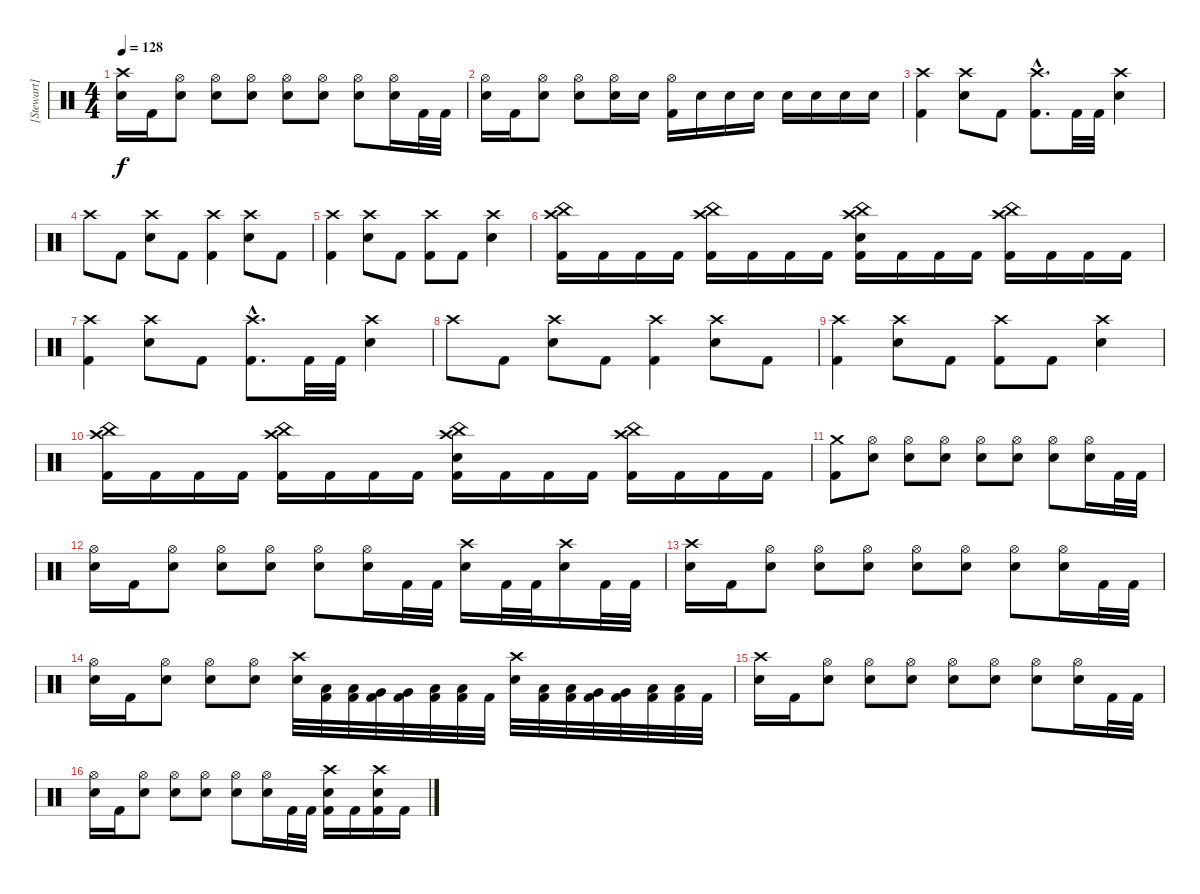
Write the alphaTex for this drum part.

\track ("[Stewart]" "[Stewart]") {instrument percussion}
\staff {score}
\articulation defaults
\ts (4 4)
\tempo 128
\clef neutral
\ks c
("Crash high (hit)" "Electric Snare (hit)").16{dy f} "Kick (hit) 2".16 ("Hi-Hat (open)" "Electric Snare (hit)").8 ("Hi-Hat (open)" "Electric Snare (hit)").8 ("Hi-Hat (open)" "Electric Snare (hit)").8 ("Hi-Hat (open)" "Electric Snare (hit)").8 ("Hi-Hat (open)" "Electric Snare (hit)").8 ("Hi-Hat (open)" "Electric Snare (hit)").8 ("Hi-Hat (open)" "Electric Snare (hit)").16 "Kick (hit) 2".32 "Kick (hit) 2".32 |
("Hi-Hat (open)" "Electric Snare (hit)").16 "Kick (hit) 2".16 ("Hi-Hat (open)" "Electric Snare (hit)").8 ("Hi-Hat (open)" "Electric Snare (hit)").8 ("Hi-Hat (open)" "Electric Snare (hit)").16 "Electric Snare (hit)".16 ("Hi-Hat (open)" "Kick (hit) 2").16 "Electric Snare (hit)".16 "Electric Snare (hit)".16 "Electric Snare (hit)".16 "Electric Snare (hit)".16 "Electric Snare (hit)".16 "Electric Snare (hit)".16 "Electric Snare (hit)".16 |
("Crash high (hit)" "Kick (hit) 2").4 ("Crash high (hit)" "Electric Snare (hit)").8 "Kick (hit) 2".8 ("Crash high (hit)"{hac} "Kick (hit) 2"{hac}).8{d} "Kick (hit) 2".32 "Kick (hit) 2".32 ("Crash high (hit)" "Electric Snare (hit)").4 |
"Crash high (hit)".8 "Kick (hit) 2".8 ("Crash high (hit)" "Electric Snare (hit)").8 "Kick (hit) 2".8 ("Crash high (hit)" "Kick (hit) 2").4 ("Crash high (hit)" "Electric Snare (hit)").8 "Kick (hit) 2".8 |
("Crash high (hit)" "Kick (hit) 2").4 ("Crash high (hit)" "Electric Snare (hit)").8 "Kick (hit) 2".8 ("Crash high (hit)" "Kick (hit) 2").8 "Kick (hit) 2".8 ("Crash high (hit)" "Electric Snare (hit)").4 |
("China (hit)" "Crash high (hit)" "Kick (hit) 2").16 "Kick (hit) 2".16 "Kick (hit) 2".16 "Kick (hit) 2".16 ("China (hit)" "Crash high (hit)" "Kick (hit) 2").16 "Kick (hit) 2".16 "Kick (hit) 2".16 "Kick (hit) 2".16 ("China (hit)" "Crash high (hit)" "Electric Snare (hit)" "Kick (hit) 2").16 "Kick (hit) 2".16 "Kick (hit) 2".16 "Kick (hit) 2".16 ("China (hit)" "Crash high (hit)" "Kick (hit) 2").16 "Kick (hit) 2".16 "Kick (hit) 2".16 "Kick (hit) 2".16 |
("Crash high (hit)" "Kick (hit) 2").4 ("Crash high (hit)" "Electric Snare (hit)").8 "Kick (hit) 2".8 ("Crash high (hit)"{hac} "Kick (hit) 2"{hac}).8{d} "Kick (hit) 2".32 "Kick (hit) 2".32 ("Crash high (hit)" "Electric Snare (hit)").4 |
"Crash high (hit)".8 "Kick (hit) 2".8 ("Crash high (hit)" "Electric Snare (hit)").8 "Kick (hit) 2".8 ("Crash high (hit)" "Kick (hit) 2").4 ("Crash high (hit)" "Electric Snare (hit)").8 "Kick (hit) 2".8 |
("Crash high (hit)" "Kick (hit) 2").4 ("Crash high (hit)" "Electric Snare (hit)").8 "Kick (hit) 2".8 ("Crash high (hit)" "Kick (hit) 2").8 "Kick (hit) 2".8 ("Crash high (hit)" "Electric Snare (hit)").4 |
("China (hit)" "Crash high (hit)" "Kick (hit) 2").16 "Kick (hit) 2".16 "Kick (hit) 2".16 "Kick (hit) 2".16 ("China (hit)" "Crash high (hit)" "Kick (hit) 2").16 "Kick (hit) 2".16 "Kick (hit) 2".16 "Kick (hit) 2".16 ("China (hit)" "Crash high (hit)" "Electric Snare (hit)" "Kick (hit) 2").16 "Kick (hit) 2".16 "Kick (hit) 2".16 "Kick (hit) 2".16 ("China (hit)" "Crash high (hit)" "Kick (hit) 2").16 "Kick (hit) 2".16 "Kick (hit) 2".16 "Kick (hit) 2".16 |
("Crash medium (hit)" "Kick (hit) 2").8 ("Hi-Hat (open)" "Electric Snare (hit)").8 ("Hi-Hat (open)" "Electric Snare (hit)").8 ("Hi-Hat (open)" "Electric Snare (hit)").8 ("Hi-Hat (open)" "Electric Snare (hit)").8 ("Hi-Hat (open)" "Electric Snare (hit)").8 ("Hi-Hat (open)" "Electric Snare (hit)").8 ("Hi-Hat (open)" "Electric Snare (hit)").16 "Kick (hit) 2".32 "Kick (hit) 2".32 |
("Hi-Hat (open)" "Electric Snare (hit)").16 "Kick (hit) 2".16 ("Hi-Hat (open)" "Electric Snare (hit)").8 ("Hi-Hat (open)" "Electric Snare (hit)").8 ("Hi-Hat (open)" "Electric Snare (hit)").8 ("Hi-Hat (open)" "Electric Snare (hit)").8 ("Hi-Hat (open)" "Electric Snare (hit)").16 "Kick (hit) 2".32 "Kick (hit) 2".32 ("Crash high (hit)" "Electric Snare (hit)").16 "Kick (hit) 2".32 "Kick (hit) 2".32 ("Crash high (hit)" "Electric Snare (hit)").16 "Kick (hit) 2".32 "Kick (hit) 2".32 |
("Crash high (hit)" "Electric Snare (hit)").16 "Kick (hit) 2".16 ("Hi-Hat (open)" "Electric Snare (hit)").8 ("Hi-Hat (open)" "Electric Snare (hit)").8 ("Hi-Hat (open)" "Electric Snare (hit)").8 ("Hi-Hat (open)" "Electric Snare (hit)").8 ("Hi-Hat (open)" "Electric Snare (hit)").8 ("Hi-Hat (open)" "Electric Snare (hit)").8 ("Hi-Hat (open)" "Electric Snare (hit)").16 "Kick (hit) 2".32 "Kick (hit) 2".32 |
("Hi-Hat (open)" "Electric Snare (hit)").16 "Kick (hit) 2".16 ("Hi-Hat (open)" "Electric Snare (hit)").8 ("Hi-Hat (open)" "Electric Snare (hit)").8 ("Hi-Hat (open)" "Electric Snare (hit)").8 ("Crash high (hit)" "Electric Snare (hit)").32 ("Low Tom (hit)" "Kick (hit) 2").32 ("Low Tom (hit)" "Kick (hit) 2").32 ("Very Low Tom (hit)" "Kick (hit) 2").32 ("Very Low Tom (hit)" "Kick (hit) 2").32 ("Low Tom (hit)" "Kick (hit) 2").32 ("Low Tom (hit)" "Kick (hit) 2").32 "Kick (hit) 2".32 ("Crash high (hit)" "Electric Snare (hit)").32 ("Low Tom (hit)" "Kick (hit) 2").32 ("Low Tom (hit)" "Kick (hit) 2").32 ("Very Low Tom (hit)" "Kick (hit) 2").32 ("Very Low Tom (hit)" "Kick (hit) 2").32 ("Low Tom (hit)" "Kick (hit) 2").32 ("Low Tom (hit)" "Kick (hit) 2").32 "Kick (hit) 2".32 |
("Crash high (hit)" "Electric Snare (hit)").16 "Kick (hit) 2".16 ("Hi-Hat (open)" "Electric Snare (hit)").8 ("Hi-Hat (open)" "Electric Snare (hit)").8 ("Hi-Hat (open)" "Electric Snare (hit)").8 ("Hi-Hat (open)" "Electric Snare (hit)").8 ("Hi-Hat (open)" "Electric Snare (hit)").8 ("Hi-Hat (open)" "Electric Snare (hit)").8 ("Hi-Hat (open)" "Electric Snare (hit)").16 "Kick (hit) 2".32 "Kick (hit) 2".32 |
("Hi-Hat (open)" "Electric Snare (hit)").16 "Kick (hit) 2".16 ("Hi-Hat (open)" "Electric Snare (hit)").8 ("Hi-Hat (open)" "Electric Snare (hit)").8 ("Hi-Hat (open)" "Electric Snare (hit)").8 ("Hi-Hat (open)" "Electric Snare (hit)").8 ("Hi-Hat (open)" "Electric Snare (hit)").16 "Kick (hit) 2".32 "Kick (hit) 2".32 ("Crash high (hit)" "Electric Snare (hit)" "Kick (hit) 2").16 "Kick (hit) 2".16 ("Crash high (hit)" "Electric Snare (hit)" "Kick (hit) 2").16 "Kick (hit) 2".16
